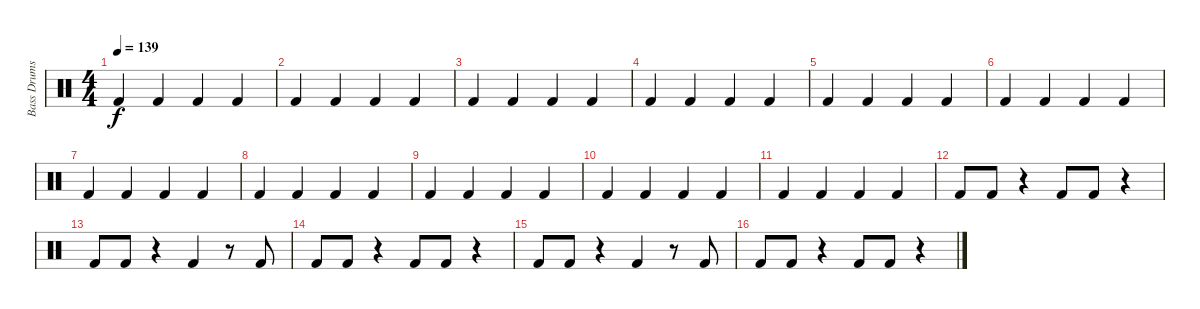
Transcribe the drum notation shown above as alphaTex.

\track ("Bass Drums" "Bass Drums") {instrument percussion}
\staff {score}
\articulation defaults
\ts (4 4)
\tempo 139
\clef neutral
\ks c "Kick (hit) 2".4{dy f} "Kick (hit) 2".4 "Kick (hit) 2".4 "Kick (hit) 2".4
|
"Kick (hit) 2".4 "Kick (hit) 2".4 "Kick (hit) 2".4 "Kick (hit) 2".4 |
"Kick (hit) 2".4 "Kick (hit) 2".4 "Kick (hit) 2".4 "Kick (hit) 2".4 |
"Kick (hit) 2".4 "Kick (hit) 2".4 "Kick (hit) 2".4 "Kick (hit) 2".4 |
"Kick (hit) 2".4 "Kick (hit) 2".4 "Kick (hit) 2".4 "Kick (hit) 2".4 |
"Kick (hit) 2".4 "Kick (hit) 2".4 "Kick (hit) 2".4 "Kick (hit) 2".4 |
"Kick (hit) 2".4 "Kick (hit) 2".4 "Kick (hit) 2".4 "Kick (hit) 2".4 |
"Kick (hit) 2".4 "Kick (hit) 2".4 "Kick (hit) 2".4 "Kick (hit) 2".4 |
"Kick (hit) 2".4 "Kick (hit) 2".4 "Kick (hit) 2".4 "Kick (hit) 2".4 |
"Kick (hit) 2".4 "Kick (hit) 2".4 "Kick (hit) 2".4 "Kick (hit) 2".4 |
"Kick (hit) 2".4 "Kick (hit) 2".4 "Kick (hit) 2".4 "Kick (hit) 2".4 |
"Kick (hit) 2".8 "Kick (hit) 2".8 r.4 "Kick (hit) 2".8 "Kick (hit) 2".8 r.4 |
"Kick (hit) 2".8 "Kick (hit) 2".8 r.4 "Kick (hit) 2".4 r.8 "Kick (hit) 2".8 |
"Kick (hit) 2".8 "Kick (hit) 2".8 r.4 "Kick (hit) 2".8 "Kick (hit) 2".8 r.4 |
"Kick (hit) 2".8 "Kick (hit) 2".8 r.4 "Kick (hit) 2".4 r.8 "Kick (hit) 2".8 |
"Kick (hit) 2".8 "Kick (hit) 2".8 r.4 "Kick (hit) 2".8 "Kick (hit) 2".8 r.4
